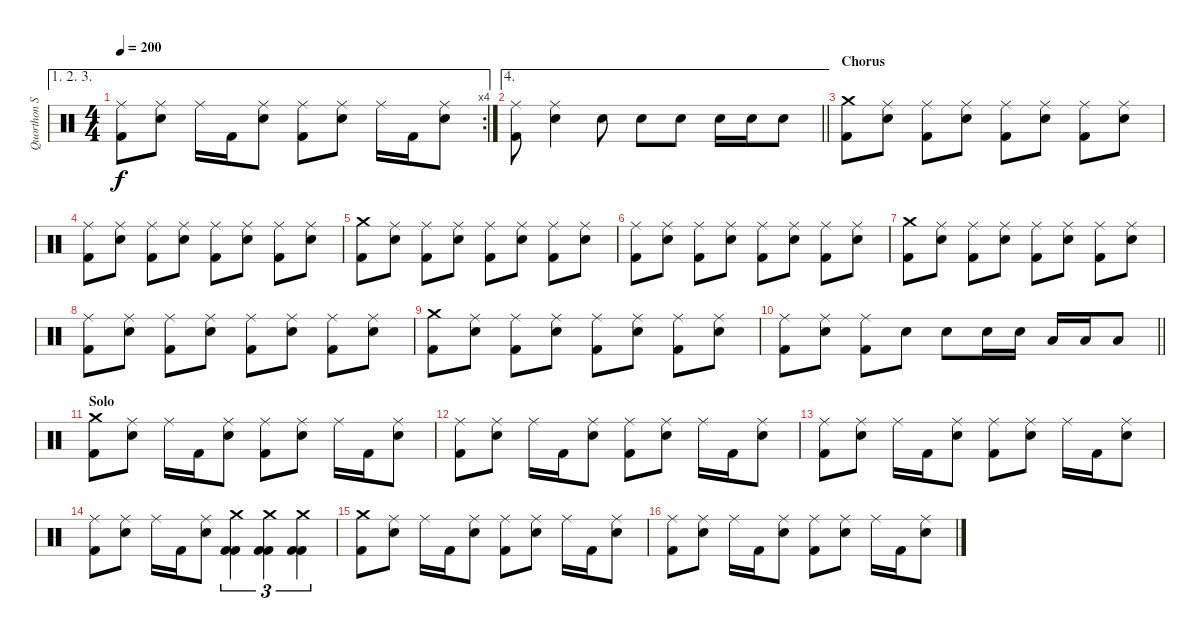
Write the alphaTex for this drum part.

\track ("Quorthon Seth" "Quorthon S") {instrument percussion}
\staff {score}
\articulation defaults
\ae (1 2 3)
\rc 4
\ts (4 4)
\tempo 200
\clef neutral
\ks c
("Ride (middle)" "Kick (hit) 2").8{dy f} ("Ride (middle)" "Snare (hit) 2").8 "Ride (middle)".16 "Kick (hit) 2".16 ("Ride (middle)" "Snare (hit) 2").8 ("Ride (middle)" "Kick (hit) 2").8 ("Ride (middle)" "Snare (hit) 2").8 "Ride (middle)".16 "Kick (hit) 2".16 ("Ride (middle)" "Snare (hit) 2").8 |
\ae 4
\barLineRight lightlight
("Ride (middle)" "Kick (hit) 2").8 ("Ride (middle)" "Snare (hit) 2").4 "Snare (hit) 2".8 "Snare (hit) 2".8 "Snare (hit) 2".8 "Snare (hit) 2".16 "Snare (hit) 2".16 "Snare (hit) 2".8 |
\section ("" "Chorus")
("Crash medium (hit)" "Kick (hit) 2").8 ("Ride (middle)" "Snare (hit) 2").8 ("Ride (middle)" "Kick (hit) 2").8 ("Ride (middle)" "Snare (hit) 2").8 ("Ride (middle)" "Kick (hit) 2").8 ("Ride (middle)" "Snare (hit) 2").8 ("Ride (middle)" "Kick (hit) 2").8 ("Ride (middle)" "Snare (hit) 2").8 |
("Ride (middle)" "Kick (hit) 2").8 ("Ride (middle)" "Snare (hit) 2").8 ("Ride (middle)" "Kick (hit) 2").8 ("Ride (middle)" "Snare (hit) 2").8 ("Ride (middle)" "Kick (hit) 2").8 ("Ride (middle)" "Snare (hit) 2").8 ("Ride (middle)" "Kick (hit) 2").8 ("Ride (middle)" "Snare (hit) 2").8 |
("Crash medium (hit)" "Kick (hit) 2").8 ("Ride (middle)" "Snare (hit) 2").8 ("Ride (middle)" "Kick (hit) 2").8 ("Ride (middle)" "Snare (hit) 2").8 ("Ride (middle)" "Kick (hit) 2").8 ("Ride (middle)" "Snare (hit) 2").8 ("Ride (middle)" "Kick (hit) 2").8 ("Ride (middle)" "Snare (hit) 2").8 |
("Ride (middle)" "Kick (hit) 2").8 ("Ride (middle)" "Snare (hit) 2").8 ("Ride (middle)" "Kick (hit) 2").8 ("Ride (middle)" "Snare (hit) 2").8 ("Ride (middle)" "Kick (hit) 2").8 ("Ride (middle)" "Snare (hit) 2").8 ("Ride (middle)" "Kick (hit) 2").8 ("Ride (middle)" "Snare (hit) 2").8 |
("Crash medium (hit)" "Kick (hit) 2").8 ("Ride (middle)" "Snare (hit) 2").8 ("Ride (middle)" "Kick (hit) 2").8 ("Ride (middle)" "Snare (hit) 2").8 ("Ride (middle)" "Kick (hit) 2").8 ("Ride (middle)" "Snare (hit) 2").8 ("Ride (middle)" "Kick (hit) 2").8 ("Ride (middle)" "Snare (hit) 2").8 |
("Ride (middle)" "Kick (hit) 2").8 ("Ride (middle)" "Snare (hit) 2").8 ("Ride (middle)" "Kick (hit) 2").8 ("Ride (middle)" "Snare (hit) 2").8 ("Ride (middle)" "Kick (hit) 2").8 ("Ride (middle)" "Snare (hit) 2").8 ("Ride (middle)" "Kick (hit) 2").8 ("Ride (middle)" "Snare (hit) 2").8 |
("Crash medium (hit)" "Kick (hit) 2").8 ("Ride (middle)" "Snare (hit) 2").8 ("Ride (middle)" "Kick (hit) 2").8 ("Ride (middle)" "Snare (hit) 2").8 ("Ride (middle)" "Kick (hit) 2").8 ("Ride (middle)" "Snare (hit) 2").8 ("Ride (middle)" "Kick (hit) 2").8 ("Ride (middle)" "Snare (hit) 2").8 |
\barLineRight lightlight
("Ride (middle)" "Kick (hit) 2").8 ("Ride (middle)" "Snare (hit) 2").8 ("Ride (middle)" "Kick (hit) 2").8 "Snare (hit) 2".8 "Snare (hit) 2".8 "Snare (hit) 2".16 "Snare (hit) 2".16 "Low Tom (hit)".16 "Low Tom (hit)".16 "Low Tom (hit)".8 |
\section ("" "Solo")
("Crash medium (hit)" "Kick (hit) 2").8 ("Ride (middle)" "Snare (hit) 2").8 "Ride (middle)".16 "Kick (hit) 2".16 ("Ride (middle)" "Snare (hit) 2").8 ("Ride (middle)" "Kick (hit) 2").8 ("Ride (middle)" "Snare (hit) 2").8 "Ride (middle)".16 "Kick (hit) 2".16 ("Ride (middle)" "Snare (hit) 2").8 |
("Ride (middle)" "Kick (hit) 2").8 ("Ride (middle)" "Snare (hit) 2").8 "Ride (middle)".16 "Kick (hit) 2".16 ("Ride (middle)" "Snare (hit) 2").8 ("Ride (middle)" "Kick (hit) 2").8 ("Ride (middle)" "Snare (hit) 2").8 "Ride (middle)".16 "Kick (hit) 2".16 ("Ride (middle)" "Snare (hit) 2").8 |
("Ride (middle)" "Kick (hit) 2").8 ("Ride (middle)" "Snare (hit) 2").8 "Ride (middle)".16 "Kick (hit) 2".16 ("Ride (middle)" "Snare (hit) 2").8 ("Ride (middle)" "Kick (hit) 2").8 ("Ride (middle)" "Snare (hit) 2").8 "Ride (middle)".16 "Kick (hit) 2".16 ("Ride (middle)" "Snare (hit) 2").8 |
("Ride (middle)" "Kick (hit) 2").8 ("Ride (middle)" "Snare (hit) 2").8 "Ride (middle)".16 "Kick (hit) 2".16 ("Ride (middle)" "Snare (hit) 2").8 ("Crash medium (hit)" "Kick (hit) 2" "Kick (hit) 2").4{tu (3 2)} ("Crash medium (hit)" "Kick (hit) 2" "Kick (hit) 2").4{tu (3 2)} ("Crash medium (hit)" "Kick (hit) 2" "Kick (hit) 2").4{tu (3 2)} |
("Crash medium (hit)" "Kick (hit) 2").8 ("Ride (middle)" "Snare (hit) 2").8 "Ride (middle)".16 "Kick (hit) 2".16 ("Ride (middle)" "Snare (hit) 2").8 ("Ride (middle)" "Kick (hit) 2").8 ("Ride (middle)" "Snare (hit) 2").8 "Ride (middle)".16 "Kick (hit) 2".16 ("Ride (middle)" "Snare (hit) 2").8 |
("Ride (middle)" "Kick (hit) 2").8 ("Ride (middle)" "Snare (hit) 2").8 "Ride (middle)".16 "Kick (hit) 2".16 ("Ride (middle)" "Snare (hit) 2").8 ("Ride (middle)" "Kick (hit) 2").8 ("Ride (middle)" "Snare (hit) 2").8 "Ride (middle)".16 "Kick (hit) 2".16 ("Ride (middle)" "Snare (hit) 2").8
